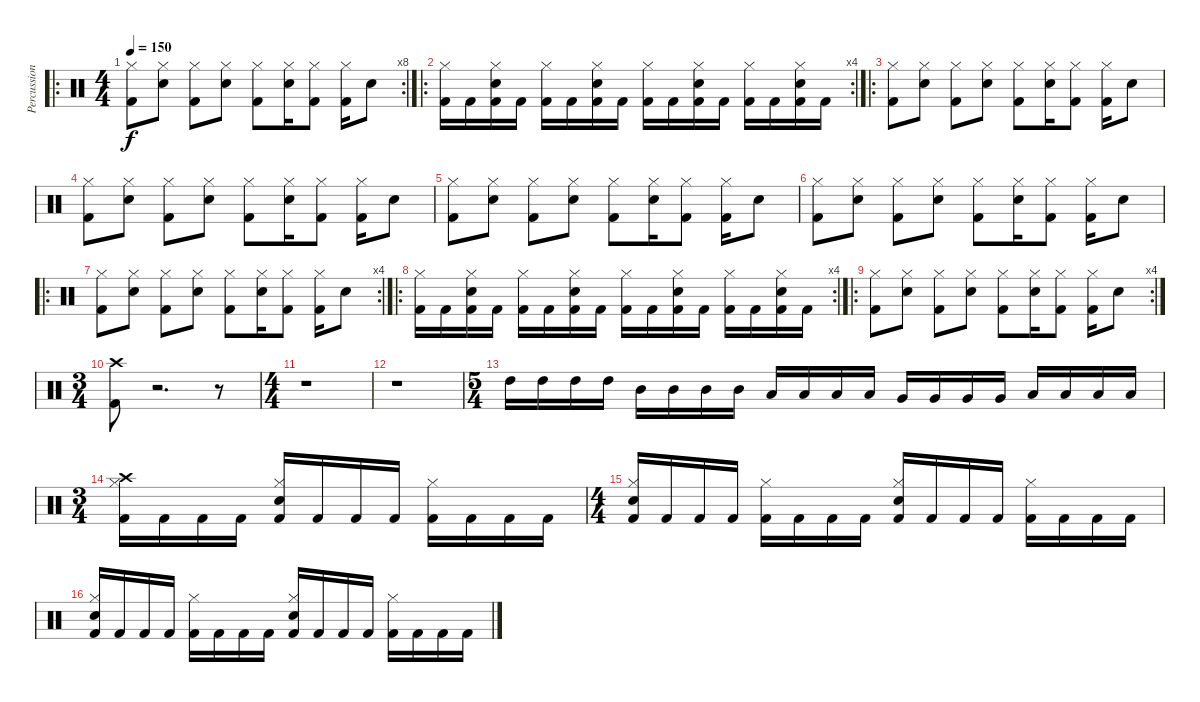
\track ("Percussion" "Percussion") {instrument percussion}
\staff {score}
\articulation defaults
\ro
\rc 8
\ts (4 4)
\tempo 150
\clef neutral
\ks c
("Kick (hit) 2" "Hi-Hat (closed)").8{dy f} ("Snare (hit) 2" "Hi-Hat (closed)").8 ("Kick (hit) 2" "Hi-Hat (closed)").8 ("Snare (hit) 2" "Hi-Hat (closed)").8 ("Kick (hit) 2" "Hi-Hat (closed)").8 ("Snare (hit) 2" "Hi-Hat (closed)").16 ("Kick (hit) 2" "Hi-Hat (closed)").8 ("Kick (hit) 2" "Hi-Hat (closed)").16 "Snare (hit) 2".8 |
\ro
\rc 4
("Kick (hit) 2" "Hi-Hat (closed)").16 "Kick (hit) 2".16 ("Kick (hit) 2" "Hi-Hat (closed)" "Snare (hit) 2").16 "Kick (hit) 2".16 ("Kick (hit) 2" "Hi-Hat (closed)").16 "Kick (hit) 2".16 ("Kick (hit) 2" "Hi-Hat (closed)" "Snare (hit) 2").16 "Kick (hit) 2".16 ("Kick (hit) 2" "Hi-Hat (closed)").16 "Kick (hit) 2".16 ("Kick (hit) 2" "Hi-Hat (closed)" "Snare (hit) 2").16 "Kick (hit) 2".16 ("Kick (hit) 2" "Hi-Hat (closed)").16 "Kick (hit) 2".16 ("Kick (hit) 2" "Hi-Hat (closed)" "Snare (hit) 2").16 "Kick (hit) 2".16 |
\ro
("Kick (hit) 2" "Hi-Hat (closed)").8 ("Snare (hit) 2" "Hi-Hat (closed)").8 ("Kick (hit) 2" "Hi-Hat (closed)").8 ("Snare (hit) 2" "Hi-Hat (closed)").8 ("Kick (hit) 2" "Hi-Hat (closed)").8 ("Snare (hit) 2" "Hi-Hat (closed)").16 ("Kick (hit) 2" "Hi-Hat (closed)").8 ("Kick (hit) 2" "Hi-Hat (closed)").16 "Snare (hit) 2".8 |
("Kick (hit) 2" "Hi-Hat (closed)").8 ("Snare (hit) 2" "Hi-Hat (closed)").8 ("Kick (hit) 2" "Hi-Hat (closed)").8 ("Snare (hit) 2" "Hi-Hat (closed)").8 ("Kick (hit) 2" "Hi-Hat (closed)").8 ("Snare (hit) 2" "Hi-Hat (closed)").16 ("Kick (hit) 2" "Hi-Hat (closed)").8 ("Kick (hit) 2" "Hi-Hat (closed)").16 "Snare (hit) 2".8 |
("Kick (hit) 2" "Hi-Hat (closed)").8 ("Snare (hit) 2" "Hi-Hat (closed)").8 ("Kick (hit) 2" "Hi-Hat (closed)").8 ("Snare (hit) 2" "Hi-Hat (closed)").8 ("Kick (hit) 2" "Hi-Hat (closed)").8 ("Snare (hit) 2" "Hi-Hat (closed)").16 ("Kick (hit) 2" "Hi-Hat (closed)").8 ("Kick (hit) 2" "Hi-Hat (closed)").16 "Snare (hit) 2".8 |
("Kick (hit) 2" "Hi-Hat (closed)").8 ("Snare (hit) 2" "Hi-Hat (closed)").8 ("Kick (hit) 2" "Hi-Hat (closed)").8 ("Snare (hit) 2" "Hi-Hat (closed)").8 ("Kick (hit) 2" "Hi-Hat (closed)").8 ("Snare (hit) 2" "Hi-Hat (closed)").16 ("Kick (hit) 2" "Hi-Hat (closed)").8 ("Kick (hit) 2" "Hi-Hat (closed)").16 "Snare (hit) 2".8 |
\ro
\rc 4
("Kick (hit) 2" "Hi-Hat (closed)").8 ("Snare (hit) 2" "Hi-Hat (closed)").8 ("Kick (hit) 2" "Hi-Hat (closed)").8 ("Snare (hit) 2" "Hi-Hat (closed)").8 ("Kick (hit) 2" "Hi-Hat (closed)").8 ("Snare (hit) 2" "Hi-Hat (closed)").16 ("Kick (hit) 2" "Hi-Hat (closed)").8 ("Kick (hit) 2" "Hi-Hat (closed)").16 "Snare (hit) 2".8 |
\ro
\rc 4
("Kick (hit) 2" "Hi-Hat (closed)").16 "Kick (hit) 2".16 ("Kick (hit) 2" "Hi-Hat (closed)" "Snare (hit) 2").16 "Kick (hit) 2".16 ("Kick (hit) 2" "Hi-Hat (closed)").16 "Kick (hit) 2".16 ("Kick (hit) 2" "Hi-Hat (closed)" "Snare (hit) 2").16 "Kick (hit) 2".16 ("Kick (hit) 2" "Hi-Hat (closed)").16 "Kick (hit) 2".16 ("Kick (hit) 2" "Hi-Hat (closed)" "Snare (hit) 2").16 "Kick (hit) 2".16 ("Kick (hit) 2" "Hi-Hat (closed)").16 "Kick (hit) 2".16 ("Kick (hit) 2" "Hi-Hat (closed)" "Snare (hit) 2").16 "Kick (hit) 2".16 |
\ro
\rc 4
("Kick (hit) 2" "Hi-Hat (closed)").8 ("Snare (hit) 2" "Hi-Hat (closed)").8 ("Kick (hit) 2" "Hi-Hat (closed)").8 ("Snare (hit) 2" "Hi-Hat (closed)").8 ("Kick (hit) 2" "Hi-Hat (closed)").8 ("Snare (hit) 2" "Hi-Hat (closed)").16 ("Kick (hit) 2" "Hi-Hat (closed)").8 ("Kick (hit) 2" "Hi-Hat (closed)").16 "Snare (hit) 2".8 |
\ts (3 4)
("Kick (hit) 2" "Crash high (hit)").8 r.2{d} r.8 |
\ts (4 4)
r.1 |
r.1 |
\ts (5 4)
"High Tom (hit)".16 "High Tom (hit)".16 "High Tom (hit)".16 "High Tom (hit)".16 "Mid Tom (hit)".16 "Mid Tom (hit)".16 "Mid Tom (hit)".16 "Mid Tom (hit)".16 "Low Tom (hit)".16 "Low Tom (hit)".16 "Low Tom (hit)".16 "Low Tom (hit)".16 "Very Low Tom (hit)".16 "Very Low Tom (hit)".16 "Very Low Tom (hit)".16 "Very Low Tom (hit)".16 "Low Floor Tom (hit)".16 "Low Floor Tom (hit)".16 "Low Floor Tom (hit)".16 "Low Floor Tom (hit)".16 |
\ts (3 4)
("Kick (hit) 2" "Hi-Hat (closed)" "Crash high (hit)").16 "Kick (hit) 2".16 "Kick (hit) 2".16 "Kick (hit) 2".16 ("Kick (hit) 2" "Hi-Hat (closed)" "Snare (hit) 2").16 "Kick (hit) 2".16 "Kick (hit) 2".16 "Kick (hit) 2".16 ("Kick (hit) 2" "Hi-Hat (closed)").16 "Kick (hit) 2".16 "Kick (hit) 2".16 "Kick (hit) 2".16 |
\ts (4 4)
("Kick (hit) 2" "Hi-Hat (closed)" "Snare (hit) 2").16 "Kick (hit) 2".16 "Kick (hit) 2".16 "Kick (hit) 2".16 ("Kick (hit) 2" "Hi-Hat (closed)").16 "Kick (hit) 2".16 "Kick (hit) 2".16 "Kick (hit) 2".16 ("Kick (hit) 2" "Hi-Hat (closed)" "Snare (hit) 2").16 "Kick (hit) 2".16 "Kick (hit) 2".16 "Kick (hit) 2".16 ("Kick (hit) 2" "Hi-Hat (closed)").16 "Kick (hit) 2".16 "Kick (hit) 2".16 "Kick (hit) 2".16 |
("Kick (hit) 2" "Hi-Hat (closed)" "Snare (hit) 2").16 "Kick (hit) 2".16 "Kick (hit) 2".16 "Kick (hit) 2".16 ("Kick (hit) 2" "Hi-Hat (closed)").16 "Kick (hit) 2".16 "Kick (hit) 2".16 "Kick (hit) 2".16 ("Kick (hit) 2" "Hi-Hat (closed)" "Snare (hit) 2").16 "Kick (hit) 2".16 "Kick (hit) 2".16 "Kick (hit) 2".16 ("Kick (hit) 2" "Hi-Hat (closed)").16 "Kick (hit) 2".16 "Kick (hit) 2".16 "Kick (hit) 2".16
